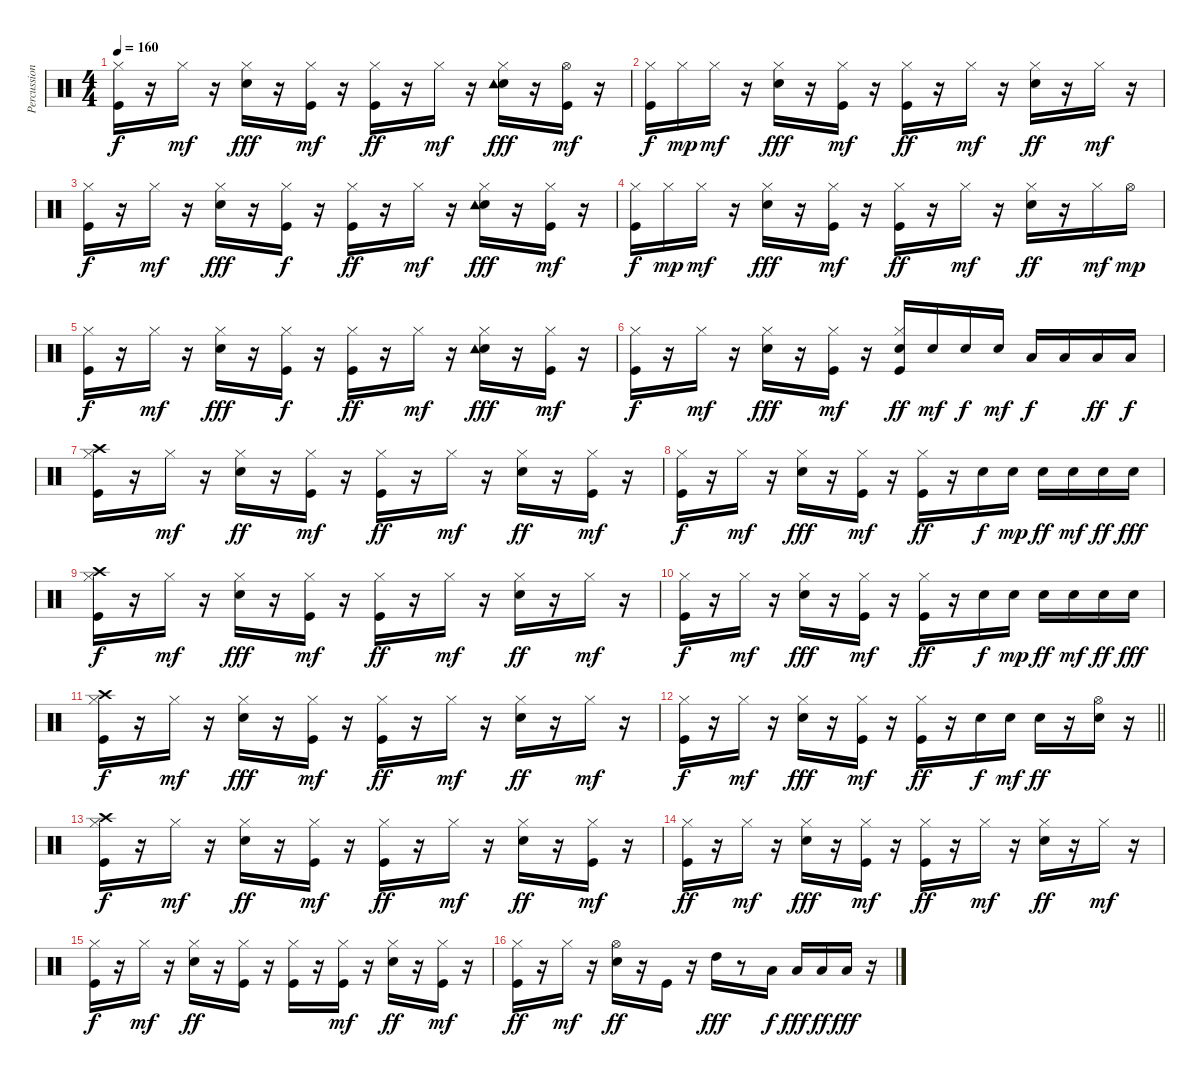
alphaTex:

\track ("Percussions" "Percussion") {instrument percussion}
\staff {score}
\articulation defaults
\ts (4 4)
\tempo 160
\clef neutral
\ks c
("Kick (hit)" "Hi-Hat (closed)").16{dy f} r.16 "Hi-Hat (closed)".16{dy mf} r.16 ("Snare (hit) 2" "Hi-Hat (closed)").16{dy fff} r.16 ("Kick (hit)" "Hi-Hat (closed)").16{dy mf} r.16 ("Kick (hit)" "Hi-Hat (closed)").16{dy ff} r.16 "Hi-Hat (closed)".16{dy mf} r.16 ("Snare (hit) 2" "Hi-Hat (closed)" "Tambourine (hit)").16{dy fff} r.16 ("Kick (hit)" "Hi-Hat (open)").16{dy mf} r.16 |
("Kick (hit)" "Hi-Hat (closed)").16{dy f} "Hi-Hat (closed)".16{dy mp} "Hi-Hat (closed)".16{dy mf} r.16 ("Snare (hit) 2" "Hi-Hat (closed)").16{dy fff} r.16 ("Kick (hit)" "Hi-Hat (closed)").16{dy mf} r.16 ("Kick (hit)" "Hi-Hat (closed)").16{dy ff} r.16 "Hi-Hat (closed)".16{dy mf} r.16 ("Snare (hit) 2" "Hi-Hat (closed)").16{dy ff} r.16 "Hi-Hat (closed)".16{dy mf} r.16 |
("Kick (hit)" "Hi-Hat (closed)").16{dy f} r.16 "Hi-Hat (closed)".16{dy mf} r.16 ("Snare (hit) 2" "Hi-Hat (closed)").16{dy fff} r.16 ("Kick (hit)" "Hi-Hat (closed)").16{dy f} r.16 ("Kick (hit)" "Hi-Hat (closed)").16{dy ff} r.16 "Hi-Hat (closed)".16{dy mf} r.16 ("Snare (hit) 2" "Hi-Hat (closed)" "Tambourine (hit)").16{dy fff} r.16 ("Kick (hit)" "Hi-Hat (closed)").16{dy mf} r.16 |
("Kick (hit)" "Hi-Hat (closed)").16{dy f} "Hi-Hat (closed)".16{dy mp} "Hi-Hat (closed)".16{dy mf} r.16 ("Snare (hit) 2" "Hi-Hat (closed)").16{dy fff} r.16 ("Kick (hit)" "Hi-Hat (closed)").16{dy mf} r.16 ("Kick (hit)" "Hi-Hat (closed)").16{dy ff} r.16 "Hi-Hat (closed)".16{dy mf} r.16 ("Snare (hit) 2" "Hi-Hat (closed)").16{dy ff} r.16 "Hi-Hat (closed)".16{dy mf} "Hi-Hat (open)".16{dy mp} |
("Kick (hit)" "Hi-Hat (closed)").16{dy f} r.16 "Hi-Hat (closed)".16{dy mf} r.16 ("Snare (hit) 2" "Hi-Hat (closed)").16{dy fff} r.16 ("Kick (hit)" "Hi-Hat (closed)").16{dy f} r.16 ("Kick (hit)" "Hi-Hat (closed)").16{dy ff} r.16 "Hi-Hat (closed)".16{dy mf} r.16 ("Snare (hit) 2" "Hi-Hat (closed)" "Tambourine (hit)").16{dy fff} r.16 ("Kick (hit)" "Hi-Hat (closed)").16{dy mf} r.16 |
("Kick (hit)" "Hi-Hat (closed)").16{dy f} r.16 "Hi-Hat (closed)".16{dy mf} r.16 ("Snare (hit) 2" "Hi-Hat (closed)").16{dy fff} r.16 ("Kick (hit)" "Hi-Hat (closed)").16{dy mf} r.16 ("Kick (hit)" "Snare (hit) 2" "Hi-Hat (closed)").16{dy ff} "Snare (hit) 2".16{dy mf} "Snare (hit) 2".16{dy f} "Snare (hit) 2".16{dy mf} "Low Tom (hit)".16{dy f} "Low Tom (hit)".16 "Low Tom (hit)".16{dy ff} "Low Tom (hit)".16{dy f} |
("Kick (hit)" "Hi-Hat (closed)" "Crash high (hit)").16 r.16 "Hi-Hat (closed)".16{dy mf} r.16 ("Snare (hit) 2" "Hi-Hat (closed)").16{dy ff} r.16 ("Kick (hit)" "Hi-Hat (closed)").16{dy mf} r.16 ("Kick (hit)" "Hi-Hat (closed)").16{dy ff} r.16 "Hi-Hat (closed)".16{dy mf} r.16 ("Snare (hit) 2" "Hi-Hat (closed)").16{dy ff} r.16 ("Kick (hit)" "Hi-Hat (closed)").16{dy mf} r.16 |
("Kick (hit)" "Hi-Hat (closed)").16{dy f} r.16 "Hi-Hat (closed)".16{dy mf} r.16 ("Snare (hit) 2" "Hi-Hat (closed)").16{dy fff} r.16 ("Kick (hit)" "Hi-Hat (closed)").16{dy mf} r.16 ("Kick (hit)" "Hi-Hat (closed)").16{dy ff} r.16 "Snare (hit) 2".16{dy f} "Snare (hit) 2".16{dy mp} "Snare (hit) 2".16{dy ff} "Snare (hit) 2".16{dy mf} "Snare (hit) 2".16{dy ff} "Snare (hit) 2".16{dy fff} |
("Kick (hit)" "Hi-Hat (closed)" "Crash high (hit)").16{dy f} r.16 "Hi-Hat (closed)".16{dy mf} r.16 ("Snare (hit) 2" "Hi-Hat (closed)").16{dy fff} r.16 ("Kick (hit)" "Hi-Hat (closed)").16{dy mf} r.16 ("Kick (hit)" "Hi-Hat (closed)").16{dy ff} r.16 "Hi-Hat (closed)".16{dy mf} r.16 ("Snare (hit) 2" "Hi-Hat (closed)").16{dy ff} r.16 "Hi-Hat (closed)".16{dy mf} r.16 |
("Kick (hit)" "Hi-Hat (closed)").16{dy f} r.16 "Hi-Hat (closed)".16{dy mf} r.16 ("Snare (hit) 2" "Hi-Hat (closed)").16{dy fff} r.16 ("Kick (hit)" "Hi-Hat (closed)").16{dy mf} r.16 ("Kick (hit)" "Hi-Hat (closed)").16{dy ff} r.16 "Snare (hit) 2".16{dy f} "Snare (hit) 2".16{dy mp} "Snare (hit) 2".16{dy ff} "Snare (hit) 2".16{dy mf} "Snare (hit) 2".16{dy ff} "Snare (hit) 2".16{dy fff} |
("Kick (hit)" "Hi-Hat (closed)" "Crash high (hit)").16{dy f} r.16 "Hi-Hat (closed)".16{dy mf} r.16 ("Snare (hit) 2" "Hi-Hat (closed)").16{dy fff} r.16 ("Kick (hit)" "Hi-Hat (closed)").16{dy mf} r.16 ("Kick (hit)" "Hi-Hat (closed)").16{dy ff} r.16 "Hi-Hat (closed)".16{dy mf} r.16 ("Snare (hit) 2" "Hi-Hat (closed)").16{dy ff} r.16 "Hi-Hat (closed)".16{dy mf} r.16 |
\barLineRight lightlight
("Kick (hit)" "Hi-Hat (closed)").16{dy f} r.16 "Hi-Hat (closed)".16{dy mf} r.16 ("Snare (hit) 2" "Hi-Hat (closed)").16{dy fff} r.16 ("Kick (hit)" "Hi-Hat (closed)").16{dy mf} r.16 ("Kick (hit)" "Hi-Hat (closed)").16{dy ff} r.16 "Snare (hit) 2".16{dy f} "Snare (hit) 2".16{dy mf} "Snare (hit) 2".16{dy ff} r.16 ("Snare (hit) 2" "Hi-Hat (open)").16 r.16 |
("Kick (hit)" "Hi-Hat (closed)" "Crash high (hit)").16{dy f} r.16 "Hi-Hat (closed)".16{dy mf} r.16 ("Snare (hit) 2" "Hi-Hat (closed)").16{dy ff} r.16 ("Kick (hit)" "Hi-Hat (closed)").16{dy mf} r.16 ("Kick (hit)" "Hi-Hat (closed)").16{dy ff} r.16 "Hi-Hat (closed)".16{dy mf} r.16 ("Snare (hit) 2" "Hi-Hat (closed)").16{dy ff} r.16 ("Kick (hit)" "Hi-Hat (closed)").16{dy mf} r.16 |
("Kick (hit)" "Hi-Hat (closed)").16{dy ff} r.16 "Hi-Hat (closed)".16{dy mf} r.16 ("Snare (hit) 2" "Hi-Hat (closed)").16{dy fff} r.16 ("Kick (hit)" "Hi-Hat (closed)").16{dy mf} r.16 ("Kick (hit)" "Hi-Hat (closed)").16{dy ff} r.16 "Hi-Hat (closed)".16{dy mf} r.16 ("Snare (hit) 2" "Hi-Hat (closed)").16{dy ff} r.16 "Hi-Hat (closed)".16{dy mf} r.16 |
("Kick (hit)" "Hi-Hat (closed)").16{dy f} r.16 "Hi-Hat (closed)".16{dy mf} r.16 ("Snare (hit) 2" "Hi-Hat (closed)").16{dy ff} r.16 ("Kick (hit)" "Hi-Hat (closed)").16 r.16 ("Kick (hit)" "Hi-Hat (closed)").16 r.16 ("Kick (hit)" "Hi-Hat (closed)").16{dy mf} r.16 ("Snare (hit) 2" "Hi-Hat (closed)").16{dy ff} r.16 ("Kick (hit)" "Hi-Hat (closed)").16{dy mf} r.16 |
("Kick (hit)" "Hi-Hat (closed)").16{dy ff} r.16 "Hi-Hat (closed)".16{dy mf} r.16 ("Snare (hit) 2" "Hi-Hat (open)").16{dy ff} r.16 "Kick (hit)".16 r.16 "High Tom (hit)".16{dy fff} r.8 "Low Tom (hit)".16{dy f} "Low Tom (hit)".16{dy fff} "Low Floor Tom (hit)".16{dy ff} "Low Floor Tom (hit)".16{dy fff} r.16
